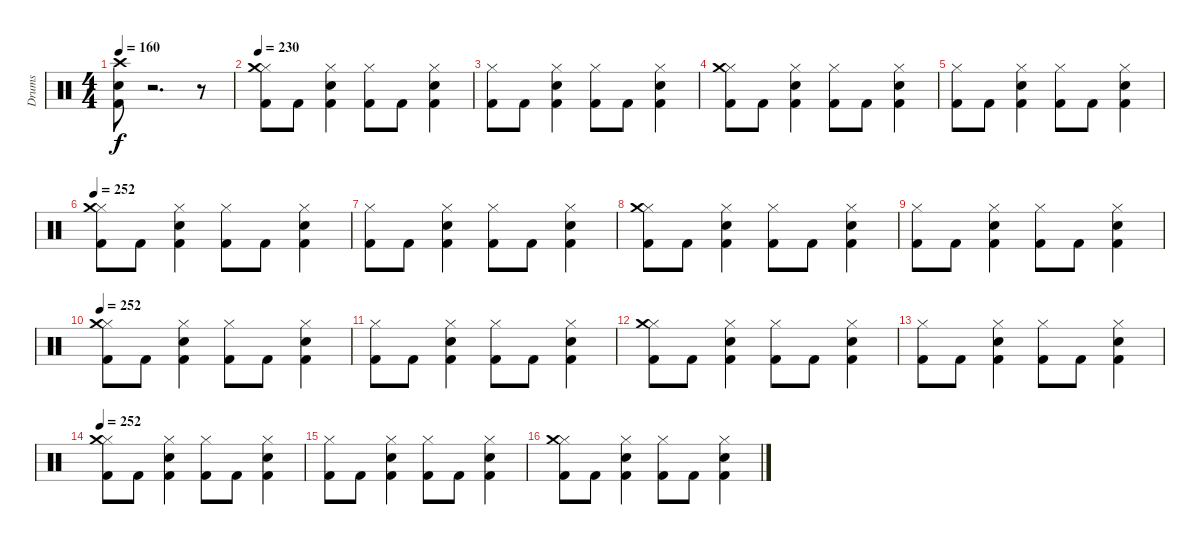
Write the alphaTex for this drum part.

\track ("Drums" "Drums") {instrument percussion}
\staff {score}
\articulation defaults
\ts (4 4)
\tempo 160
\clef neutral
\ks c
("Kick (hit) 2" "Snare (hit) 2" "Crash high (hit)").8{dy f} r.2{d} r.8 |
\tempo 252
\tempo 230
("Kick (hit) 2" "Hi-Hat (closed)" "Crash medium (hit)").8 "Kick (hit) 2".8 ("Kick (hit) 2" "Snare (hit) 2" "Hi-Hat (closed)").4 ("Kick (hit) 2" "Hi-Hat (closed)").8 "Kick (hit) 2".8 ("Kick (hit) 2" "Snare (hit) 2" "Hi-Hat (closed)").4 |
("Kick (hit) 2" "Hi-Hat (closed)").8 "Kick (hit) 2".8 ("Kick (hit) 2" "Snare (hit) 2" "Hi-Hat (closed)").4 ("Kick (hit) 2" "Hi-Hat (closed)").8 "Kick (hit) 2".8 ("Kick (hit) 2" "Snare (hit) 2" "Hi-Hat (closed)").4 |
("Kick (hit) 2" "Hi-Hat (closed)" "Crash medium (hit)").8 "Kick (hit) 2".8 ("Kick (hit) 2" "Snare (hit) 2" "Hi-Hat (closed)").4 ("Kick (hit) 2" "Hi-Hat (closed)").8 "Kick (hit) 2".8 ("Kick (hit) 2" "Snare (hit) 2" "Hi-Hat (closed)").4 |
("Kick (hit) 2" "Hi-Hat (closed)").8 "Kick (hit) 2".8 ("Kick (hit) 2" "Snare (hit) 2" "Hi-Hat (closed)").4 ("Kick (hit) 2" "Hi-Hat (closed)").8 "Kick (hit) 2".8 ("Kick (hit) 2" "Snare (hit) 2" "Hi-Hat (closed)").4 |
\tempo 252
("Kick (hit) 2" "Hi-Hat (closed)" "Crash medium (hit)").8 "Kick (hit) 2".8 ("Kick (hit) 2" "Snare (hit) 2" "Hi-Hat (closed)").4 ("Kick (hit) 2" "Hi-Hat (closed)").8 "Kick (hit) 2".8 ("Kick (hit) 2" "Snare (hit) 2" "Hi-Hat (closed)").4 |
("Kick (hit) 2" "Hi-Hat (closed)").8 "Kick (hit) 2".8 ("Kick (hit) 2" "Snare (hit) 2" "Hi-Hat (closed)").4 ("Kick (hit) 2" "Hi-Hat (closed)").8 "Kick (hit) 2".8 ("Kick (hit) 2" "Snare (hit) 2" "Hi-Hat (closed)").4 |
("Kick (hit) 2" "Hi-Hat (closed)" "Crash medium (hit)").8 "Kick (hit) 2".8 ("Kick (hit) 2" "Snare (hit) 2" "Hi-Hat (closed)").4 ("Kick (hit) 2" "Hi-Hat (closed)").8 "Kick (hit) 2".8 ("Kick (hit) 2" "Snare (hit) 2" "Hi-Hat (closed)").4 |
("Kick (hit) 2" "Hi-Hat (closed)").8 "Kick (hit) 2".8 ("Kick (hit) 2" "Snare (hit) 2" "Hi-Hat (closed)").4 ("Kick (hit) 2" "Hi-Hat (closed)").8 "Kick (hit) 2".8 ("Kick (hit) 2" "Snare (hit) 2" "Hi-Hat (closed)").4 |
\tempo 252
("Kick (hit) 2" "Hi-Hat (closed)" "Crash medium (hit)").8 "Kick (hit) 2".8 ("Kick (hit) 2" "Snare (hit) 2" "Hi-Hat (closed)").4 ("Kick (hit) 2" "Hi-Hat (closed)").8 "Kick (hit) 2".8 ("Kick (hit) 2" "Snare (hit) 2" "Hi-Hat (closed)").4 |
("Kick (hit) 2" "Hi-Hat (closed)").8 "Kick (hit) 2".8 ("Kick (hit) 2" "Snare (hit) 2" "Hi-Hat (closed)").4 ("Kick (hit) 2" "Hi-Hat (closed)").8 "Kick (hit) 2".8 ("Kick (hit) 2" "Snare (hit) 2" "Hi-Hat (closed)").4 |
("Kick (hit) 2" "Hi-Hat (closed)" "Crash medium (hit)").8 "Kick (hit) 2".8 ("Kick (hit) 2" "Snare (hit) 2" "Hi-Hat (closed)").4 ("Kick (hit) 2" "Hi-Hat (closed)").8 "Kick (hit) 2".8 ("Kick (hit) 2" "Snare (hit) 2" "Hi-Hat (closed)").4 |
("Kick (hit) 2" "Hi-Hat (closed)").8 "Kick (hit) 2".8 ("Kick (hit) 2" "Snare (hit) 2" "Hi-Hat (closed)").4 ("Kick (hit) 2" "Hi-Hat (closed)").8 "Kick (hit) 2".8 ("Kick (hit) 2" "Snare (hit) 2" "Hi-Hat (closed)").4 |
\tempo 252
("Kick (hit) 2" "Hi-Hat (closed)" "Crash medium (hit)").8 "Kick (hit) 2".8 ("Kick (hit) 2" "Snare (hit) 2" "Hi-Hat (closed)").4 ("Kick (hit) 2" "Hi-Hat (closed)").8 "Kick (hit) 2".8 ("Kick (hit) 2" "Snare (hit) 2" "Hi-Hat (closed)").4 |
("Kick (hit) 2" "Hi-Hat (closed)").8 "Kick (hit) 2".8 ("Kick (hit) 2" "Snare (hit) 2" "Hi-Hat (closed)").4 ("Kick (hit) 2" "Hi-Hat (closed)").8 "Kick (hit) 2".8 ("Kick (hit) 2" "Snare (hit) 2" "Hi-Hat (closed)").4 |
("Kick (hit) 2" "Hi-Hat (closed)" "Crash medium (hit)").8 "Kick (hit) 2".8 ("Kick (hit) 2" "Snare (hit) 2" "Hi-Hat (closed)").4 ("Kick (hit) 2" "Hi-Hat (closed)").8 "Kick (hit) 2".8 ("Kick (hit) 2" "Snare (hit) 2" "Hi-Hat (closed)").4
